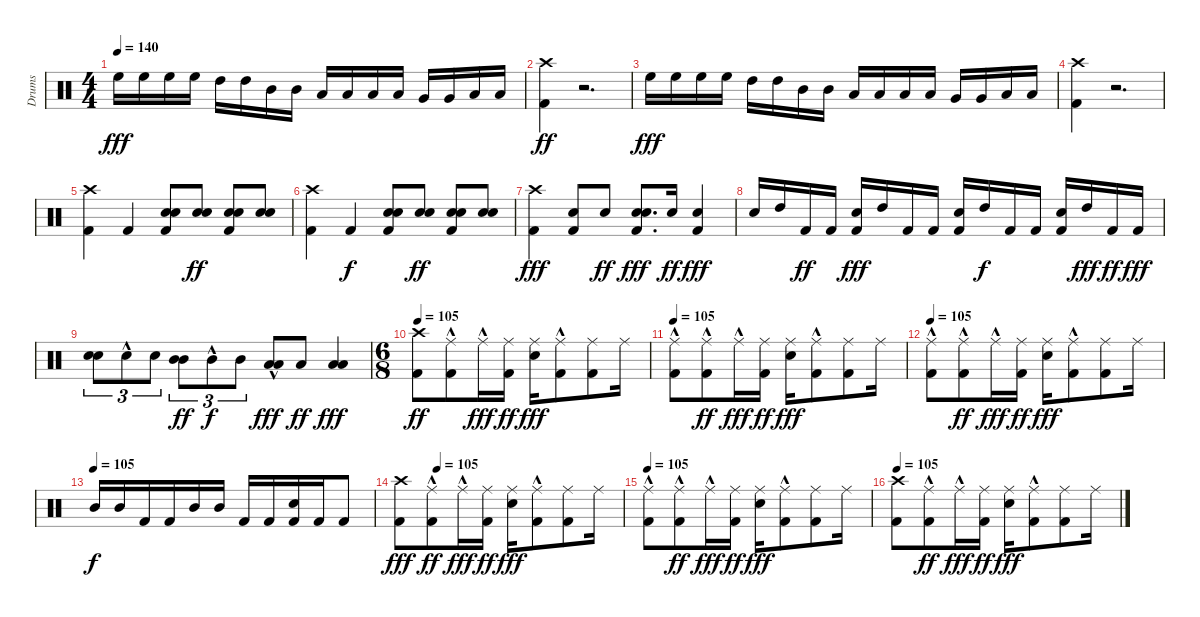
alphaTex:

\track ("Drums" "Drums") {instrument percussion}
\staff {score}
\articulation defaults
\ts (4 4)
\tempo 140
\clef neutral
\ks c "High Floor Tom (hit)".16{dy fff} "High Floor Tom (hit)".16 "High Floor Tom (hit)".16 "High Floor Tom (hit)".16 "High Tom (hit)".16 "High Tom (hit)".16 "Mid Tom (hit)".16 "Mid Tom (hit)".16 "Low Tom (hit)".16 "Low Tom (hit)".16 "Low Tom (hit)".16 "Low Tom (hit)".16 "Very Low Tom (hit)".16 "Very Low Tom (hit)".16 "Low Floor Tom (hit)".16 "Low Floor Tom (hit)".16
|
("Kick (hit) 2" "Crash high (hit)").4{dy ff} r.2{d} |
"High Floor Tom (hit)".16{dy fff} "High Floor Tom (hit)".16 "High Floor Tom (hit)".16 "High Floor Tom (hit)".16 "High Tom (hit)".16 "High Tom (hit)".16 "Mid Tom (hit)".16 "Mid Tom (hit)".16 "Low Tom (hit)".16 "Low Tom (hit)".16 "Low Tom (hit)".16 "Low Tom (hit)".16 "Very Low Tom (hit)".16 "Very Low Tom (hit)".16 "Low Floor Tom (hit)".16 "Low Floor Tom (hit)".16 |
("Kick (hit) 2" "Crash high (hit)").4 r.2{d} |
("Kick (hit) 2" "Crash high (hit)").4 "Kick (hit) 2".4 ("Snare (hit) 2" "Electric Snare (hit)" "Kick (hit) 2").8 ("Snare (hit) 2" "Electric Snare (hit)").8{dy ff} ("Kick (hit) 2" "Electric Snare (hit)" "Snare (hit) 2").8 ("Snare (hit) 2" "Electric Snare (hit)").8 |
("Kick (hit) 2" "Crash high (hit)").4 "Kick (hit) 2".4{dy f} ("Snare (hit) 2" "Electric Snare (hit)" "Kick (hit) 2").8 ("Snare (hit) 2" "Electric Snare (hit)").8{dy ff} ("Electric Snare (hit)" "Snare (hit) 2" "Kick (hit) 2").8 ("Snare (hit) 2" "Electric Snare (hit)").8 |
("Kick (hit) 2" "Crash high (hit)").4{dy fff} ("Electric Snare (hit)" "Kick (hit) 2").8 "Electric Snare (hit)".8{dy ff} ("Snare (hit) 2" "Electric Snare (hit)" "Kick (hit) 2").8{d dy fff} "Snare (hit) 2".16{dy ff} ("Electric Snare (hit)" "Kick (hit) 2").4{dy fff} |
"Electric Snare (hit)".16 "High Tom (hit)".16 "Kick (hit) 2".16{dy ff} "Kick (hit) 2".16 ("Electric Snare (hit)" "Kick (hit) 2").16{dy fff} "High Tom (hit)".16 "Kick (hit) 2".16 "Kick (hit) 2".16 ("Electric Snare (hit)" "Kick (hit) 2").16 "High Tom (hit)".16{dy f} "Kick (hit) 2".16 "Kick (hit) 2".16 ("Electric Snare (hit)" "Kick (hit) 2").16 "High Tom (hit)".16{dy fff} "Kick (hit) 2".16{dy ff} "Kick (hit) 2".16{dy fff} |
("Snare (hit) 2" "Electric Snare (hit)").8{tu (3 2)} "Electric Snare (hit)"{hac}.8{tu (3 2)} "Electric Snare (hit)".8{tu (3 2)} ("Mid Tom (hit)" "Mid Tom (hit)").8{tu (3 2) dy ff} "Mid Tom (hit)"{hac}.8{tu (3 2) dy f} "Mid Tom (hit)".8{tu (3 2)} ("Low Tom (hit)" "Low Tom (hit)"{hac}).8{dy fff} "Low Tom (hit)".8{dy ff} ("Low Floor Tom (hit)" "Low Floor Tom (hit)").4{dy fff} |
\ts (6 8)
\tempo 105
("Kick (hit) 2" "Crash high (hit)").8{dy ff} ("Ride (middle)" "Kick (hit) 2"{hac}).8 "Ride (middle)"{hac}.16{dy fff} ("Ride (middle)" "Kick (hit) 2").16{dy ff} ("Ride (middle)" "Electric Snare (hit)").16{dy fff} ("Ride (middle)" "Kick (hit) 2"{hac}).8 ("Ride (middle)" "Kick (hit) 2").8 "Ride (middle)".16 |
\tempo 105
("Ride (middle)" "Kick (hit) 2"{hac}).8 ("Ride (middle)" "Kick (hit) 2"{hac}).8{dy ff} "Ride (middle)"{hac}.16{dy fff} ("Ride (middle)" "Kick (hit) 2").16{dy ff} ("Ride (middle)" "Electric Snare (hit)").16{dy fff} ("Ride (middle)" "Kick (hit) 2"{hac}).8 ("Ride (middle)" "Kick (hit) 2").8 "Ride (middle)".16 |
\tempo 105
("Ride (middle)" "Kick (hit) 2"{hac}).8 ("Ride (middle)" "Kick (hit) 2"{hac}).8{dy ff} "Ride (middle)"{hac}.16{dy fff} ("Ride (middle)" "Kick (hit) 2").16{dy ff} ("Ride (middle)" "Electric Snare (hit)").16{dy fff} ("Ride (middle)" "Kick (hit) 2"{hac}).8 ("Ride (middle)" "Kick (hit) 2").8 "Ride (middle)".16 |
\tempo (105)
"Mid Tom (hit)".16{dy f} "Mid Tom (hit)".16 "Kick (hit) 2".16 "Kick (hit) 2".16 "Mid Tom (hit)".16 "Mid Tom (hit)".16 "Kick (hit) 2".16 "Kick (hit) 2".16 ("Electric Snare (hit)" "Kick (hit) 2").16 "Kick (hit) 2".16 "Kick (hit) 2".8 |
\tempo (105 0.16666666666666666)
("Kick (hit) 2" "Crash high (hit)").8{dy fff} ("Ride (middle)" "Kick (hit) 2"{hac}).8{dy ff} "Ride (middle)"{hac}.16{dy fff} ("Ride (middle)" "Kick (hit) 2").16{dy ff} ("Ride (middle)" "Electric Snare (hit)").16{dy fff} ("Ride (middle)" "Kick (hit) 2"{hac}).8 ("Ride (middle)" "Kick (hit) 2").8 "Ride (middle)".16 |
\tempo 105
("Ride (middle)" "Kick (hit) 2"{hac}).8 ("Ride (middle)" "Kick (hit) 2"{hac}).8{dy ff} "Ride (middle)"{hac}.16{dy fff} ("Ride (middle)" "Kick (hit) 2").16{dy ff} ("Ride (middle)" "Electric Snare (hit)").16{dy fff} ("Ride (middle)" "Kick (hit) 2"{hac}).8 ("Ride (middle)" "Kick (hit) 2").8 "Ride (middle)".16 |
\tempo 105
("Kick (hit) 2" "Crash high (hit)").8 ("Ride (middle)" "Kick (hit) 2"{hac}).8{dy ff} "Ride (middle)"{hac}.16{dy fff} ("Ride (middle)" "Kick (hit) 2").16{dy ff} ("Ride (middle)" "Electric Snare (hit)").16{dy fff} ("Ride (middle)" "Kick (hit) 2"{hac}).8 ("Ride (middle)" "Kick (hit) 2").8 "Ride (middle)".16
